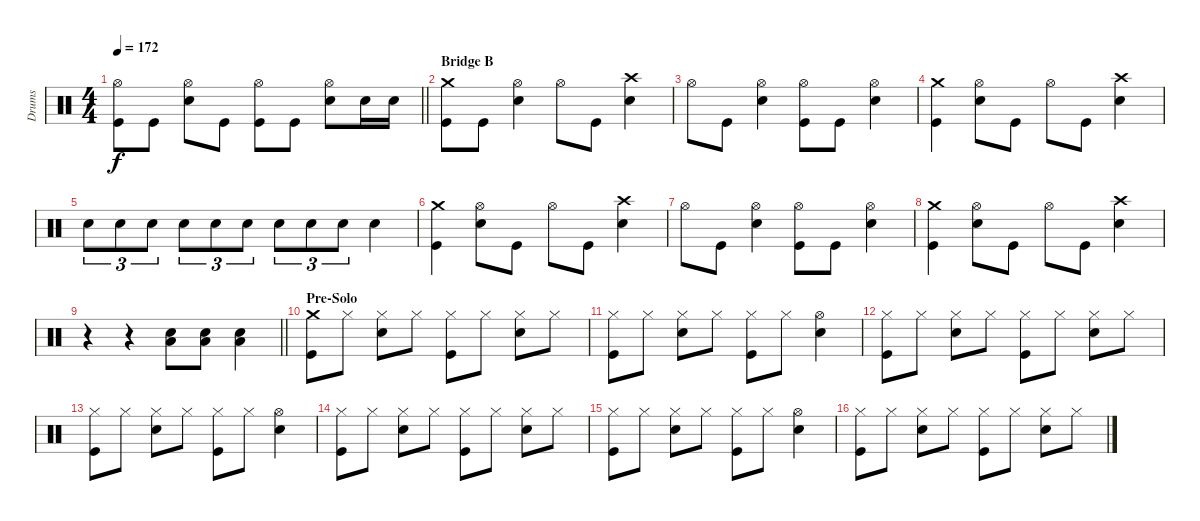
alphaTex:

\track ("Drums" "Drums") {instrument percussion}
\staff {score}
\articulation defaults
\ts (4 4)
\tempo 172
\clef neutral
\barLineRight lightlight
\ks c
("Hi-Hat (open)" "Kick (hit)").8{dy f} "Kick (hit)".8 ("Hi-Hat (open)" "Snare (hit) 2").8 "Kick (hit)".8 ("Hi-Hat (open)" "Kick (hit)").8 "Kick (hit)".8 ("Hi-Hat (open)" "Snare (hit) 2").8 "Snare (hit) 2".16 "Snare (hit) 2".16 |
\section ("" "Bridge B")
("Crash medium (hit)" "Kick (hit)").8 "Kick (hit)".8 ("Hi-Hat (open)" "Snare (hit) 2").4 "Hi-Hat (open)".8 "Kick (hit)".8 ("Crash high (hit)" "Snare (hit) 2").4 |
"Hi-Hat (open)".8 "Kick (hit)".8 ("Hi-Hat (open)" "Snare (hit) 2").4 ("Hi-Hat (open)" "Kick (hit)").8 "Kick (hit)".8 ("Hi-Hat (open)" "Snare (hit) 2").4 |
("Crash medium (hit)" "Kick (hit)").4 ("Hi-Hat (open)" "Snare (hit) 2").8 "Kick (hit)".8 "Hi-Hat (open)".8 "Kick (hit)".8 ("Crash high (hit)" "Snare (hit) 2").4 |
"Snare (hit) 2".8{tu (3 2)} "Snare (hit) 2".8{tu (3 2)} "Snare (hit) 2".8{tu (3 2)} "Snare (hit) 2".8{tu (3 2)} "Snare (hit) 2".8{tu (3 2)} "Snare (hit) 2".8{tu (3 2)} "Snare (hit) 2".8{tu (3 2)} "Snare (hit) 2".8{tu (3 2)} "Snare (hit) 2".8{tu (3 2)} "Snare (hit) 2".4 |
("Crash medium (hit)" "Kick (hit)").4 ("Hi-Hat (open)" "Snare (hit) 2").8 "Kick (hit)".8 "Hi-Hat (open)".8 "Kick (hit)".8 ("Crash high (hit)" "Snare (hit) 2").4 |
"Hi-Hat (open)".8 "Kick (hit)".8 ("Hi-Hat (open)" "Snare (hit) 2").4 ("Hi-Hat (open)" "Kick (hit)").8 "Kick (hit)".8 ("Hi-Hat (open)" "Snare (hit) 2").4 |
("Crash medium (hit)" "Kick (hit)").4 ("Hi-Hat (open)" "Snare (hit) 2").8 "Kick (hit)".8 "Hi-Hat (open)".8 "Kick (hit)".8 ("Crash high (hit)" "Snare (hit) 2").4 |
\barLineRight lightlight
r.4 r.4 ("Snare (hit) 2" "Low Floor Tom (hit)").8 ("Snare (hit) 2" "Low Floor Tom (hit)").8 ("Snare (hit) 2" "Low Floor Tom (hit)").4 |
\section ("" "Pre-Solo")
("Crash medium (hit)" "Kick (hit)").8 "Hi-Hat (closed)".8 ("Hi-Hat (closed)" "Snare (hit) 2").8 "Hi-Hat (closed)".8 ("Hi-Hat (closed)" "Kick (hit)").8 "Hi-Hat (closed)".8 ("Hi-Hat (closed)" "Snare (hit) 2").8 "Hi-Hat (closed)".8 |
("Hi-Hat (closed)" "Kick (hit)").8 "Hi-Hat (closed)".8 ("Hi-Hat (closed)" "Snare (hit) 2").8 "Hi-Hat (closed)".8 ("Hi-Hat (closed)" "Kick (hit)").8 "Hi-Hat (closed)".8 ("Hi-Hat (open)" "Snare (hit) 2").4 |
("Hi-Hat (closed)" "Kick (hit)").8 "Hi-Hat (closed)".8 ("Hi-Hat (closed)" "Snare (hit) 2").8 "Hi-Hat (closed)".8 ("Hi-Hat (closed)" "Kick (hit)").8 "Hi-Hat (closed)".8 ("Hi-Hat (closed)" "Snare (hit) 2").8 "Hi-Hat (closed)".8 |
("Hi-Hat (closed)" "Kick (hit)").8 "Hi-Hat (closed)".8 ("Hi-Hat (closed)" "Snare (hit) 2").8 "Hi-Hat (closed)".8 ("Hi-Hat (closed)" "Kick (hit)").8 "Hi-Hat (closed)".8 ("Hi-Hat (open)" "Snare (hit) 2").4 |
("Hi-Hat (closed)" "Kick (hit)").8 "Hi-Hat (closed)".8 ("Hi-Hat (closed)" "Snare (hit) 2").8 "Hi-Hat (closed)".8 ("Hi-Hat (closed)" "Kick (hit)").8 "Hi-Hat (closed)".8 ("Hi-Hat (closed)" "Snare (hit) 2").8 "Hi-Hat (closed)".8 |
("Hi-Hat (closed)" "Kick (hit)").8 "Hi-Hat (closed)".8 ("Hi-Hat (closed)" "Snare (hit) 2").8 "Hi-Hat (closed)".8 ("Hi-Hat (closed)" "Kick (hit)").8 "Hi-Hat (closed)".8 ("Hi-Hat (open)" "Snare (hit) 2").4 |
("Hi-Hat (closed)" "Kick (hit)").8 "Hi-Hat (closed)".8 ("Hi-Hat (closed)" "Snare (hit) 2").8 "Hi-Hat (closed)".8 ("Hi-Hat (closed)" "Kick (hit)").8 "Hi-Hat (closed)".8 ("Hi-Hat (closed)" "Snare (hit) 2").8 "Hi-Hat (closed)".8
